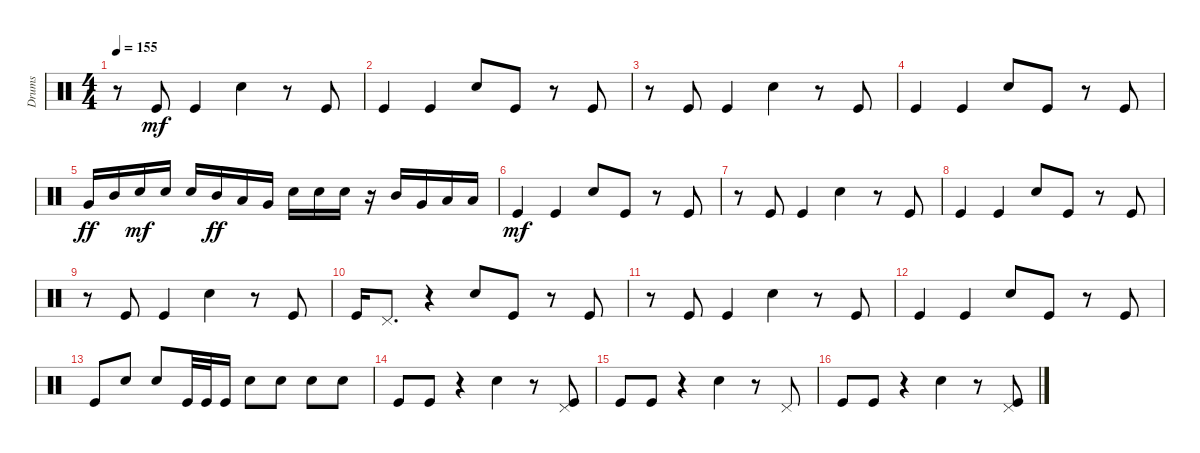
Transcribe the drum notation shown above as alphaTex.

\track ("Drums" "Drums") {instrument percussion}
\staff {score}
\articulation defaults
\ts (4 4)
\tempo 155
\clef neutral
\ks c
r.8{dy mf} "Kick (hit)".8 "Kick (hit)".4 "Snare (hit) 2".4 r.8 "Kick (hit)".8 |
"Kick (hit)".4 "Kick (hit)".4 "Snare (hit) 2".8 "Kick (hit)".8 r.8 "Kick (hit)".8 |
r.8 "Kick (hit)".8 "Kick (hit)".4 "Snare (hit) 2".4 r.8 "Kick (hit)".8 |
"Kick (hit)".4 "Kick (hit)".4 "Snare (hit) 2".8 "Kick (hit)".8 r.8 "Kick (hit)".8 |
"Very Low Tom (hit)".16{dy ff} "Mid Tom (hit)".16 "Snare (hit) 2".16{dy mf} "Snare (hit) 2".16 "Snare (hit) 2".16 "Mid Tom (hit)".16{dy ff} "Low Floor Tom (hit)".16 "Very Low Tom (hit)".16 "Snare (hit) 2".16 "Snare (hit) 2".16 "Snare (hit) 2".16 r.16 "Mid Tom (hit)".16 "Very Low Tom (hit)".16 "Low Floor Tom (hit)".16 "Low Floor Tom (hit)".16 |
"Kick (hit)".4{dy mf} "Kick (hit)".4 "Snare (hit) 2".8 "Kick (hit)".8 r.8 "Kick (hit)".8 |
r.8 "Kick (hit)".8 "Kick (hit)".4 "Snare (hit) 2".4 r.8 "Kick (hit)".8 |
"Kick (hit)".4 "Kick (hit)".4 "Snare (hit) 2".8 "Kick (hit)".8 r.8 "Kick (hit)".8 |
r.8 "Kick (hit)".8 "Kick (hit)".4 "Snare (hit) 2".4 r.8 "Kick (hit)".8 |
"Kick (hit)".16 "Pedal Hi-Hat (hit)".8{d} r.4 "Snare (hit) 2".8 "Kick (hit)".8 r.8 "Kick (hit)".8 |
r.8 "Kick (hit)".8 "Kick (hit)".4 "Snare (hit) 2".4 r.8 "Kick (hit)".8 |
"Kick (hit)".4 "Kick (hit)".4 "Snare (hit) 2".8 "Kick (hit)".8 r.8 "Kick (hit)".8 |
"Kick (hit)".8 "Snare (hit) 2".8 "Snare (hit) 2".8 "Kick (hit)".32 "Kick (hit)".32 "Kick (hit)".16 "Snare (hit) 2".8 "Snare (hit) 2".8 "Snare (hit) 2".8 "Snare (hit) 2".8 |
"Kick (hit)".8 "Kick (hit)".8 r.4 "Snare (hit) 2".4 r.8 ("Kick (hit)" "Pedal Hi-Hat (hit)").8 |
"Kick (hit)".8 "Kick (hit)".8 r.4 "Snare (hit) 2".4 r.8 "Pedal Hi-Hat (hit)".8 |
"Kick (hit)".8 "Kick (hit)".8 r.4 "Snare (hit) 2".4 r.8 ("Kick (hit)" "Pedal Hi-Hat (hit)").8
